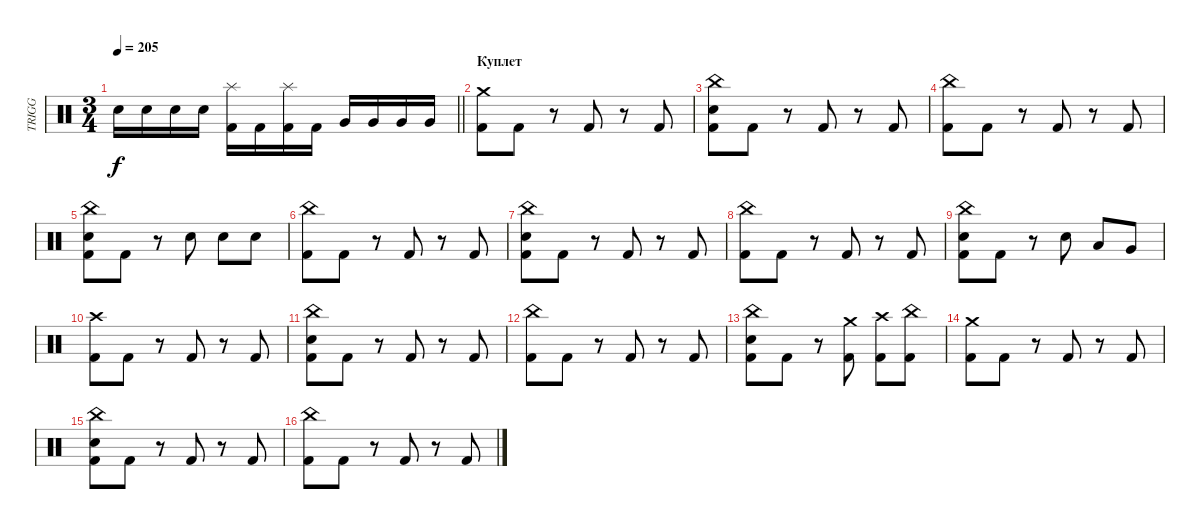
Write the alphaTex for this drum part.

\track ("TRIGG" "TRIGG") {instrument percussion}
\staff {score}
\articulation defaults
\ts (3 4)
\tempo 205
\clef neutral
\barLineRight lightlight
\ks c "Electric Snare (hit)".16{dy f} "Electric Snare (hit)".16 "Electric Snare (hit)".16 "Electric Snare (hit)".16
("Splash (hit)" "Kick (hit) 2").16 "Kick (hit) 2".16 ("Splash (hit)" "Kick (hit) 2").16 "Kick (hit) 2".16 "Very Low Tom (hit)".16 "Very Low Tom (hit)".16 "Very Low Tom (hit)".16 "Very Low Tom (hit)".16 |
\section ("" "Куплет")
("Crash medium (hit)" "Kick (hit) 2").8 "Kick (hit) 2".8 r.8 "Kick (hit) 2".8 r.8 "Kick (hit) 2".8 |
("China (hit)" "Electric Snare (hit)" "Kick (hit) 2").8 "Kick (hit) 2".8 r.8 "Kick (hit) 2".8 r.8 "Kick (hit) 2".8 |
("China (hit)" "Kick (hit) 2").8 "Kick (hit) 2".8 r.8 "Kick (hit) 2".8 r.8 "Kick (hit) 2".8 |
("China (hit)" "Electric Snare (hit)" "Kick (hit) 2").8 "Kick (hit) 2".8 r.8 "Electric Snare (hit)".8 "Electric Snare (hit)".8 "Electric Snare (hit)".8 |
("China (hit)" "Kick (hit) 2").8 "Kick (hit) 2".8 r.8 "Kick (hit) 2".8 r.8 "Kick (hit) 2".8 |
("China (hit)" "Electric Snare (hit)" "Kick (hit) 2").8 "Kick (hit) 2".8 r.8 "Kick (hit) 2".8 r.8 "Kick (hit) 2".8 |
("China (hit)" "Kick (hit) 2").8 "Kick (hit) 2".8 r.8 "Kick (hit) 2".8 r.8 "Kick (hit) 2".8 |
("China (hit)" "Electric Snare (hit)" "Kick (hit) 2").8 "Kick (hit) 2".8 r.8 "Electric Snare (hit)".8 "Low Tom (hit)".8 "Very Low Tom (hit)".8 |
("Crash high (hit)" "Kick (hit) 2").8 "Kick (hit) 2".8 r.8 "Kick (hit) 2".8 r.8 "Kick (hit) 2".8 |
("China (hit)" "Electric Snare (hit)" "Kick (hit) 2").8 "Kick (hit) 2".8 r.8 "Kick (hit) 2".8 r.8 "Kick (hit) 2".8 |
("China (hit)" "Kick (hit) 2").8 "Kick (hit) 2".8 r.8 "Kick (hit) 2".8 r.8 "Kick (hit) 2".8 |
("China (hit)" "Electric Snare (hit)" "Kick (hit) 2").8 "Kick (hit) 2".8 r.8 ("Crash medium (hit)" "Kick (hit) 2").8 ("Crash high (hit)" "Kick (hit) 2").8 ("China (hit)" "Kick (hit) 2").8 |
("Crash medium (hit)" "Kick (hit) 2").8 "Kick (hit) 2".8 r.8 "Kick (hit) 2".8 r.8 "Kick (hit) 2".8 |
("China (hit)" "Electric Snare (hit)" "Kick (hit) 2").8 "Kick (hit) 2".8 r.8 "Kick (hit) 2".8 r.8 "Kick (hit) 2".8 |
("China (hit)" "Kick (hit) 2").8 "Kick (hit) 2".8 r.8 "Kick (hit) 2".8 r.8 "Kick (hit) 2".8
